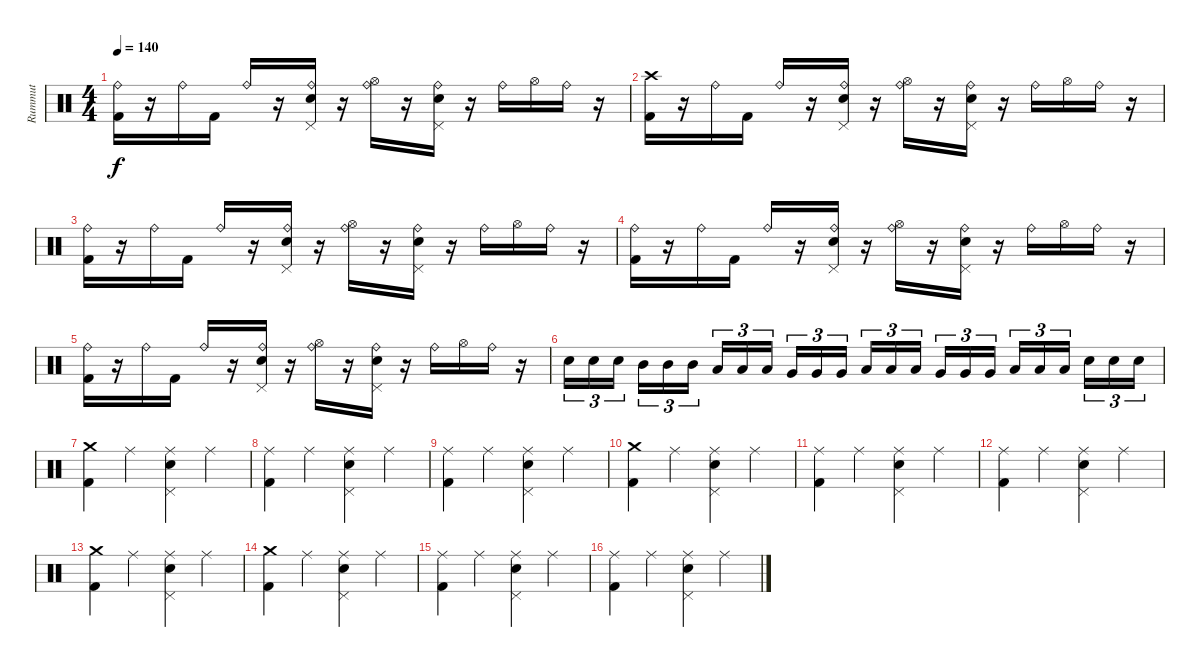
\track ("Rummut" "Rummut") {instrument percussion}
\staff {score}
\articulation defaults
\ts (4 4)
\tempo 140
\clef neutral
\ks c
("Ride (bell)" "Kick (hit) 2").16{dy f} r.16 "Ride (bell)".16 "Kick (hit) 2".16 "Ride (bell)".16 r.16 ("Ride (bell)" "Snare (hit) 2" "Pedal Hi-Hat (hit)").16 r.16 ("Ride (bell)" "Hi-Hat (open)").16 r.16 ("Ride (bell)" "Snare (hit) 2" "Pedal Hi-Hat (hit)").16 r.16 "Ride (bell)".16 "Hi-Hat (open)".16 "Ride (bell)".16 r.16 |
("Crash high (hit)" "Kick (hit) 2").16 r.16 "Ride (bell)".16 "Kick (hit) 2".16 "Ride (bell)".16 r.16 ("Ride (bell)" "Snare (hit) 2" "Pedal Hi-Hat (hit)").16 r.16 ("Ride (bell)" "Hi-Hat (open)").16 r.16 ("Ride (bell)" "Snare (hit) 2" "Pedal Hi-Hat (hit)").16 r.16 "Ride (bell)".16 "Hi-Hat (open)".16 "Ride (bell)".16 r.16 |
("Ride (bell)" "Kick (hit) 2").16 r.16 "Ride (bell)".16 "Kick (hit) 2".16 "Ride (bell)".16 r.16 ("Ride (bell)" "Snare (hit) 2" "Pedal Hi-Hat (hit)").16 r.16 ("Ride (bell)" "Hi-Hat (open)").16 r.16 ("Ride (bell)" "Snare (hit) 2" "Pedal Hi-Hat (hit)").16 r.16 "Ride (bell)".16 "Hi-Hat (open)".16 "Ride (bell)".16 r.16 |
("Ride (bell)" "Kick (hit) 2").16 r.16 "Ride (bell)".16 "Kick (hit) 2".16 "Ride (bell)".16 r.16 ("Ride (bell)" "Snare (hit) 2" "Pedal Hi-Hat (hit)").16 r.16 ("Ride (bell)" "Hi-Hat (open)").16 r.16 ("Ride (bell)" "Snare (hit) 2" "Pedal Hi-Hat (hit)").16 r.16 "Ride (bell)".16 "Hi-Hat (open)".16 "Ride (bell)".16 r.16 |
("Ride (bell)" "Kick (hit) 2").16 r.16 "Ride (bell)".16 "Kick (hit) 2".16 "Ride (bell)".16 r.16 ("Ride (bell)" "Snare (hit) 2" "Pedal Hi-Hat (hit)").16 r.16 ("Ride (bell)" "Hi-Hat (open)").16 r.16 ("Ride (bell)" "Snare (hit) 2" "Pedal Hi-Hat (hit)").16 r.16 "Ride (bell)".16 "Hi-Hat (open)".16 "Ride (bell)".16 r.16 |
"Snare (hit) 2".16{tu (3 2)} "Snare (hit) 2".16{tu (3 2)} "Snare (hit) 2".16{tu (3 2)} "Mid Tom (hit)".16{tu (3 2)} "Mid Tom (hit)".16{tu (3 2)} "Mid Tom (hit)".16{tu (3 2)} "Low Tom (hit)".16{tu (3 2)} "Low Tom (hit)".16{tu (3 2)} "Low Tom (hit)".16{tu (3 2)} "Very Low Tom (hit)".16{tu (3 2)} "Very Low Tom (hit)".16{tu (3 2)} "Very Low Tom (hit)".16{tu (3 2)} "Low Floor Tom (hit)".16{tu (3 2)} "Low Floor Tom (hit)".16{tu (3 2)} "Low Floor Tom (hit)".16{tu (3 2)} "Very Low Tom (hit)".16{tu (3 2)} "Very Low Tom (hit)".16{tu (3 2)} "Very Low Tom (hit)".16{tu (3 2)} "Low Floor Tom (hit)".16{tu (3 2)} "Low Floor Tom (hit)".16{tu (3 2)} "Low Floor Tom (hit)".16{tu (3 2)} "Snare (hit) 2".16{tu (3 2)} "Snare (hit) 2".16{tu (3 2)} "Snare (hit) 2".16{tu (3 2)} |
("Crash medium (hit)" "Kick (hit) 2").4 "Ride (middle)".4 ("Ride (middle)" "Snare (hit) 2" "Pedal Hi-Hat (hit)").4 "Ride (middle)".4 |
("Ride (middle)" "Kick (hit) 2").4 "Ride (middle)".4 ("Ride (middle)" "Snare (hit) 2" "Pedal Hi-Hat (hit)").4 "Ride (middle)".4 |
("Ride (middle)" "Kick (hit) 2").4 "Ride (middle)".4 ("Ride (middle)" "Snare (hit) 2" "Pedal Hi-Hat (hit)").4 "Ride (middle)".4 |
("Crash medium (hit)" "Kick (hit) 2").4 "Ride (middle)".4 ("Ride (middle)" "Snare (hit) 2" "Pedal Hi-Hat (hit)").4 "Ride (middle)".4 |
("Ride (middle)" "Kick (hit) 2").4 "Ride (middle)".4 ("Ride (middle)" "Snare (hit) 2" "Pedal Hi-Hat (hit)").4 "Ride (middle)".4 |
("Ride (middle)" "Kick (hit) 2").4 "Ride (middle)".4 ("Ride (middle)" "Snare (hit) 2" "Pedal Hi-Hat (hit)").4 "Ride (middle)".4 |
("Crash medium (hit)" "Kick (hit) 2").4 "Ride (middle)".4 ("Ride (middle)" "Snare (hit) 2" "Pedal Hi-Hat (hit)").4 "Ride (middle)".4 |
("Crash medium (hit)" "Kick (hit) 2").4 "Ride (middle)".4 ("Ride (middle)" "Snare (hit) 2" "Pedal Hi-Hat (hit)").4 "Ride (middle)".4 |
("Ride (middle)" "Kick (hit) 2").4 "Ride (middle)".4 ("Ride (middle)" "Snare (hit) 2" "Pedal Hi-Hat (hit)").4 "Ride (middle)".4 |
("Ride (middle)" "Kick (hit) 2").4 "Ride (middle)".4 ("Ride (middle)" "Snare (hit) 2" "Pedal Hi-Hat (hit)").4 "Ride (middle)".4
